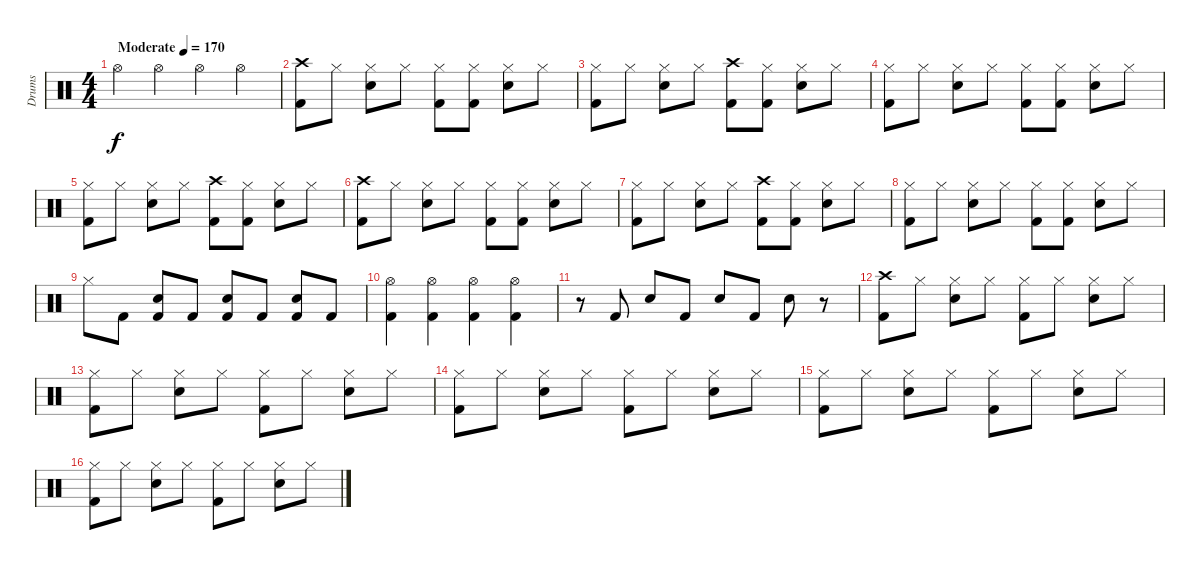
\track ("Drums" "Drums") {instrument percussion}
\staff {score}
\articulation defaults
\ts (4 4)
\tempo (170 "Moderate")
\clef neutral
\ks c "Hi-Hat (open)".4{dy f} "Hi-Hat (open)".4 "Hi-Hat (open)".4 "Hi-Hat (open)".4
|
("Crash high (hit)" "Kick (hit) 2").8 "Hi-Hat (closed)".8 ("Hi-Hat (closed)" "Snare (hit) 2").8 "Hi-Hat (closed)".8 ("Hi-Hat (closed)" "Kick (hit) 2").8 ("Hi-Hat (closed)" "Kick (hit) 2").8 ("Hi-Hat (closed)" "Snare (hit) 2").8 "Hi-Hat (closed)".8 |
("Hi-Hat (closed)" "Kick (hit) 2").8 "Hi-Hat (closed)".8 ("Hi-Hat (closed)" "Snare (hit) 2").8 "Hi-Hat (closed)".8 ("Crash high (hit)" "Kick (hit) 2").8 ("Hi-Hat (closed)" "Kick (hit) 2").8 ("Hi-Hat (closed)" "Snare (hit) 2").8 "Hi-Hat (closed)".8 |
("Hi-Hat (closed)" "Kick (hit) 2").8 "Hi-Hat (closed)".8 ("Hi-Hat (closed)" "Snare (hit) 2").8 "Hi-Hat (closed)".8 ("Hi-Hat (closed)" "Kick (hit) 2").8 ("Hi-Hat (closed)" "Kick (hit) 2").8 ("Hi-Hat (closed)" "Snare (hit) 2").8 "Hi-Hat (closed)".8 |
("Hi-Hat (closed)" "Kick (hit) 2").8 "Hi-Hat (closed)".8 ("Hi-Hat (closed)" "Snare (hit) 2").8 "Hi-Hat (closed)".8 ("Crash high (hit)" "Kick (hit) 2").8 ("Hi-Hat (closed)" "Kick (hit) 2").8 ("Hi-Hat (closed)" "Snare (hit) 2").8 "Hi-Hat (closed)".8 |
("Crash high (hit)" "Kick (hit) 2").8 "Hi-Hat (closed)".8 ("Hi-Hat (closed)" "Snare (hit) 2").8 "Hi-Hat (closed)".8 ("Hi-Hat (closed)" "Kick (hit) 2").8 ("Hi-Hat (closed)" "Kick (hit) 2").8 ("Hi-Hat (closed)" "Snare (hit) 2").8 "Hi-Hat (closed)".8 |
("Hi-Hat (closed)" "Kick (hit) 2").8 "Hi-Hat (closed)".8 ("Hi-Hat (closed)" "Snare (hit) 2").8 "Hi-Hat (closed)".8 ("Crash high (hit)" "Kick (hit) 2").8 ("Hi-Hat (closed)" "Kick (hit) 2").8 ("Hi-Hat (closed)" "Snare (hit) 2").8 "Hi-Hat (closed)".8 |
("Hi-Hat (closed)" "Kick (hit) 2").8 "Hi-Hat (closed)".8 ("Hi-Hat (closed)" "Snare (hit) 2").8 "Hi-Hat (closed)".8 ("Hi-Hat (closed)" "Kick (hit) 2").8 ("Hi-Hat (closed)" "Kick (hit) 2").8 ("Hi-Hat (closed)" "Snare (hit) 2").8 "Hi-Hat (closed)".8 |
"Hi-Hat (closed)".8 "Kick (hit) 2".8 ("Snare (hit) 2" "Kick (hit) 2").8 "Kick (hit) 2".8 ("Snare (hit) 2" "Kick (hit) 2").8 "Kick (hit) 2".8 ("Snare (hit) 2" "Kick (hit) 2").8 "Kick (hit) 2".8 |
("Hi-Hat (open)" "Kick (hit) 2").4 ("Hi-Hat (open)" "Kick (hit) 2").4 ("Hi-Hat (open)" "Kick (hit) 2").4 ("Hi-Hat (open)" "Kick (hit) 2").4 |
r.8 "Kick (hit) 2".8 "Snare (hit) 2".8 "Kick (hit) 2".8 "Snare (hit) 2".8 "Kick (hit) 2".8 "Snare (hit) 2".8 r.8 |
("Crash high (hit)" "Kick (hit) 2").8 "Hi-Hat (closed)".8 ("Hi-Hat (closed)" "Snare (hit) 2").8 "Hi-Hat (closed)".8 ("Hi-Hat (closed)" "Kick (hit) 2").8 "Hi-Hat (closed)".8 ("Hi-Hat (closed)" "Snare (hit) 2").8 "Hi-Hat (closed)".8 |
("Hi-Hat (closed)" "Kick (hit) 2").8 "Hi-Hat (closed)".8 ("Hi-Hat (closed)" "Snare (hit) 2").8 "Hi-Hat (closed)".8 ("Hi-Hat (closed)" "Kick (hit) 2").8 "Hi-Hat (closed)".8 ("Hi-Hat (closed)" "Snare (hit) 2").8 "Hi-Hat (closed)".8 |
("Hi-Hat (closed)" "Kick (hit) 2").8 "Hi-Hat (closed)".8 ("Hi-Hat (closed)" "Snare (hit) 2").8 "Hi-Hat (closed)".8 ("Hi-Hat (closed)" "Kick (hit) 2").8 "Hi-Hat (closed)".8 ("Hi-Hat (closed)" "Snare (hit) 2").8 "Hi-Hat (closed)".8 |
("Hi-Hat (closed)" "Kick (hit) 2").8 "Hi-Hat (closed)".8 ("Hi-Hat (closed)" "Snare (hit) 2").8 "Hi-Hat (closed)".8 ("Hi-Hat (closed)" "Kick (hit) 2").8 "Hi-Hat (closed)".8 ("Hi-Hat (closed)" "Snare (hit) 2").8 "Hi-Hat (closed)".8 |
("Hi-Hat (closed)" "Kick (hit) 2").8 "Hi-Hat (closed)".8 ("Hi-Hat (closed)" "Snare (hit) 2").8 "Hi-Hat (closed)".8 ("Hi-Hat (closed)" "Kick (hit) 2").8 "Hi-Hat (closed)".8 ("Hi-Hat (closed)" "Snare (hit) 2").8 "Hi-Hat (closed)".8
